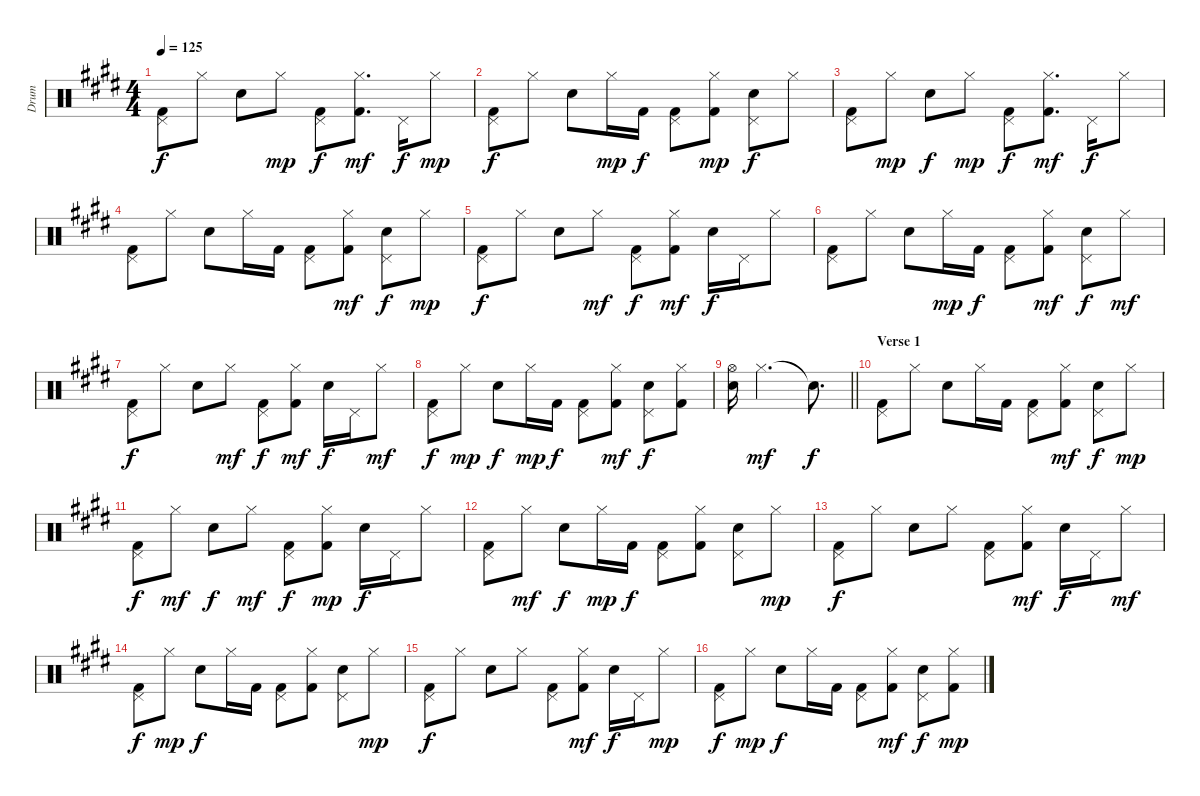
\track ("Drum" "Drum") {instrument percussion}
\staff {score}
\articulation defaults
\ts (4 4)
\tempo 125
\clef neutral
\ks e
("Kick (hit) 2" "Pedal Hi-Hat (hit)").8{dy f} "Hi-Hat (closed)".8 "Snare (hit) 2".8 "Hi-Hat (closed)".8{dy mp} ("Kick (hit) 2" "Pedal Hi-Hat (hit)").8{dy f} ("Kick (hit) 2" "Hi-Hat (closed)").8{d dy mf} "Pedal Hi-Hat (hit)".16{dy f} "Hi-Hat (closed)".8{dy mp} |
("Kick (hit) 2" "Pedal Hi-Hat (hit)").8{dy f} "Hi-Hat (closed)".8 "Snare (hit) 2".8 "Hi-Hat (closed)".16{dy mp} "Kick (hit) 2".16{dy f} ("Kick (hit) 2" "Pedal Hi-Hat (hit)").8 ("Kick (hit) 2" "Hi-Hat (closed)").8{dy mp} ("Snare (hit) 2" "Pedal Hi-Hat (hit)").8{dy f} "Hi-Hat (closed)".8 |
("Kick (hit) 2" "Pedal Hi-Hat (hit)").8 "Hi-Hat (closed)".8{dy mp} "Snare (hit) 2".8{dy f} "Hi-Hat (closed)".8{dy mp} ("Kick (hit) 2" "Pedal Hi-Hat (hit)").8{dy f} ("Kick (hit) 2" "Hi-Hat (closed)").8{d dy mf} "Pedal Hi-Hat (hit)".16{dy f} "Hi-Hat (closed)".8 |
("Kick (hit) 2" "Pedal Hi-Hat (hit)").8 "Hi-Hat (closed)".8 "Snare (hit) 2".8 "Hi-Hat (closed)".16 "Kick (hit) 2".16 ("Kick (hit) 2" "Pedal Hi-Hat (hit)").8 ("Kick (hit) 2" "Hi-Hat (closed)").8{dy mf} ("Snare (hit) 2" "Pedal Hi-Hat (hit)").8{dy f} "Hi-Hat (closed)".8{dy mp} |
("Kick (hit) 2" "Pedal Hi-Hat (hit)").8{dy f} "Hi-Hat (closed)".8 "Snare (hit) 2".8 "Hi-Hat (closed)".8{dy mf} ("Kick (hit) 2" "Pedal Hi-Hat (hit)").8{dy f} ("Kick (hit) 2" "Hi-Hat (closed)").8{dy mf} "Snare (hit) 2".16{dy f} "Pedal Hi-Hat (hit)".16 "Hi-Hat (closed)".8 |
("Kick (hit) 2" "Pedal Hi-Hat (hit)").8 "Hi-Hat (closed)".8 "Snare (hit) 2".8 "Hi-Hat (closed)".16{dy mp} "Kick (hit) 2".16{dy f} ("Kick (hit) 2" "Pedal Hi-Hat (hit)").8 ("Kick (hit) 2" "Hi-Hat (closed)").8{dy mf} ("Snare (hit) 2" "Pedal Hi-Hat (hit)").8{dy f} "Hi-Hat (closed)".8{dy mf} |
("Kick (hit) 2" "Pedal Hi-Hat (hit)").8{dy f} "Hi-Hat (closed)".8 "Snare (hit) 2".8 "Hi-Hat (closed)".8{dy mf} ("Kick (hit) 2" "Pedal Hi-Hat (hit)").8{dy f} ("Kick (hit) 2" "Hi-Hat (closed)").8{dy mf} "Snare (hit) 2".16{dy f} "Pedal Hi-Hat (hit)".16 "Hi-Hat (closed)".8{dy mf} |
("Kick (hit) 2" "Pedal Hi-Hat (hit)").8{dy f} "Hi-Hat (closed)".8{dy mp} "Snare (hit) 2".8{dy f} "Hi-Hat (closed)".16{dy mp} "Kick (hit) 2".16{dy f} ("Kick (hit) 2" "Pedal Hi-Hat (hit)").8 ("Kick (hit) 2" "Hi-Hat (closed)").8{dy mf} ("Snare (hit) 2" "Pedal Hi-Hat (hit)").8{dy f} ("Kick (hit) 2" "Hi-Hat (closed)").8 |
\barLineRight lightlight
("Snare (hit) 2" "Hi-Hat (open)").16 "Hi-Hat (closed)".2{d dy mf} "Snare (hit)"{t}.8{d dy f} |
\section ("" "Verse 1")
("Kick (hit) 2" "Pedal Hi-Hat (hit)").8 "Hi-Hat (closed)".8 "Snare (hit) 2".8 "Hi-Hat (closed)".16 "Kick (hit) 2".16 ("Kick (hit) 2" "Pedal Hi-Hat (hit)").8 ("Kick (hit) 2" "Hi-Hat (closed)").8{dy mf} ("Snare (hit) 2" "Pedal Hi-Hat (hit)").8{dy f} "Hi-Hat (closed)".8{dy mp} |
("Kick (hit) 2" "Pedal Hi-Hat (hit)").8{dy f} "Hi-Hat (closed)".8{dy mf} "Snare (hit) 2".8{dy f} "Hi-Hat (closed)".8{dy mf} ("Kick (hit) 2" "Pedal Hi-Hat (hit)").8{dy f} ("Kick (hit) 2" "Hi-Hat (closed)").8{dy mp} "Snare (hit) 2".16{dy f} "Pedal Hi-Hat (hit)".16 "Hi-Hat (closed)".8 |
("Kick (hit) 2" "Pedal Hi-Hat (hit)").8 "Hi-Hat (closed)".8{dy mf} "Snare (hit) 2".8{dy f} "Hi-Hat (closed)".16{dy mp} "Kick (hit) 2".16{dy f} ("Kick (hit) 2" "Pedal Hi-Hat (hit)").8 ("Kick (hit) 2" "Hi-Hat (closed)").8 ("Snare (hit) 2" "Pedal Hi-Hat (hit)").8 "Hi-Hat (closed)".8{dy mp} |
("Kick (hit) 2" "Pedal Hi-Hat (hit)").8{dy f} "Hi-Hat (closed)".8 "Snare (hit) 2".8 "Hi-Hat (closed)".8 ("Kick (hit) 2" "Pedal Hi-Hat (hit)").8 ("Kick (hit) 2" "Hi-Hat (closed)").8{dy mf} "Snare (hit) 2".16{dy f} "Pedal Hi-Hat (hit)".16 "Hi-Hat (closed)".8{dy mf} |
("Kick (hit) 2" "Pedal Hi-Hat (hit)").8{dy f} "Hi-Hat (closed)".8{dy mp} "Snare (hit) 2".8{dy f} "Hi-Hat (closed)".16 "Kick (hit) 2".16 ("Kick (hit) 2" "Pedal Hi-Hat (hit)").8 ("Kick (hit) 2" "Hi-Hat (closed)").8 ("Snare (hit) 2" "Pedal Hi-Hat (hit)").8 "Hi-Hat (closed)".8{dy mp} |
("Kick (hit) 2" "Pedal Hi-Hat (hit)").8{dy f} "Hi-Hat (closed)".8 "Snare (hit) 2".8 "Hi-Hat (closed)".8 ("Kick (hit) 2" "Pedal Hi-Hat (hit)").8 ("Kick (hit) 2" "Hi-Hat (closed)").8{dy mf} "Snare (hit) 2".16{dy f} "Pedal Hi-Hat (hit)".16 "Hi-Hat (closed)".8{dy mp} |
("Kick (hit) 2" "Pedal Hi-Hat (hit)").8{dy f} "Hi-Hat (closed)".8{dy mp} "Snare (hit) 2".8{dy f} "Hi-Hat (closed)".16 "Kick (hit) 2".16 ("Kick (hit) 2" "Pedal Hi-Hat (hit)").8 ("Kick (hit) 2" "Hi-Hat (closed)").8{dy mf} ("Snare (hit) 2" "Pedal Hi-Hat (hit)").8{dy f} ("Kick (hit) 2" "Hi-Hat (closed)").8{dy mp}
